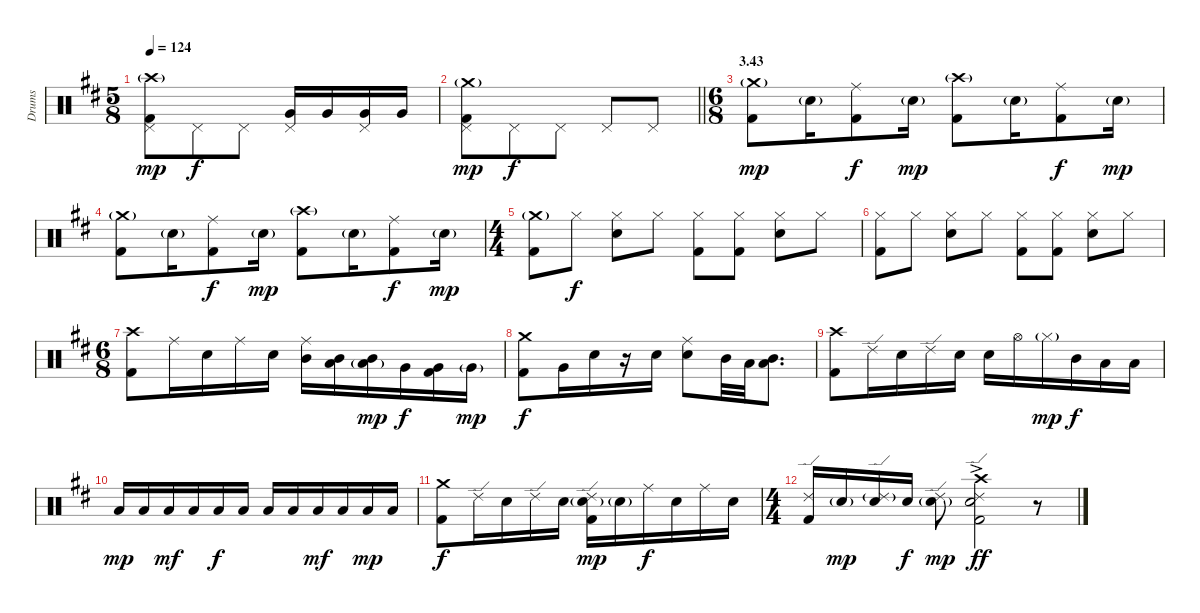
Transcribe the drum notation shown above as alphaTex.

\track ("Drums" "Drums") {instrument percussion}
\staff {score}
\articulation defaults
\ts (5 8)
\tempo 124
\clef neutral
\ks d
("Crash high (hit)"{g} "Pedal Hi-Hat (hit)" "Kick (hit) 2").8{dy mp} "Pedal Hi-Hat (hit)".8{dy f} "Pedal Hi-Hat (hit)".8 ("Pedal Hi-Hat (hit)" "Very Low Tom (hit)").16 "Very Low Tom (hit)".16 ("Pedal Hi-Hat (hit)" "Very Low Tom (hit)").16 "Very Low Tom (hit)".16 |
\barLineRight lightlight
("Crash medium (hit)"{g} "Pedal Hi-Hat (hit)" "Kick (hit) 2").8{dy mp} "Pedal Hi-Hat (hit)".8{dy f} "Pedal Hi-Hat (hit)".8 "Pedal Hi-Hat (hit)".8 "Pedal Hi-Hat (hit)".8 |
\ts (6 8)
\section ("" "3.43")
("Crash medium (hit)"{g} "Kick (hit) 2").8{dy mp} "Electric Snare (hit)"{g}.16 ("Ride (middle)" "Kick (hit) 2").8{dy f} "Electric Snare (hit)"{g}.16{dy mp} ("Crash high (hit)"{g} "Kick (hit) 2").8 "Electric Snare (hit)"{g}.16 ("Ride (middle)" "Kick (hit) 2").8{dy f} "Electric Snare (hit)"{g}.16{dy mp} |
("Crash medium (hit)"{g} "Kick (hit) 2").8 "Electric Snare (hit)"{g}.16 ("Ride (middle)" "Kick (hit) 2").8{dy f} "Electric Snare (hit)"{g}.16{dy mp} ("Crash high (hit)"{g} "Kick (hit) 2").8 "Electric Snare (hit)"{g}.16 ("Ride (middle)" "Kick (hit) 2").8{dy f} "Electric Snare (hit)"{g}.16{dy mp} |
\ts (4 4)
("Crash medium (hit)"{g} "Kick (hit) 2").8 "Hi-Hat (closed)".8{dy f} ("Hi-Hat (closed)" "Electric Snare (hit)").8 "Hi-Hat (closed)".8 ("Hi-Hat (closed)" "Kick (hit) 2").8 ("Hi-Hat (closed)" "Kick (hit) 2").8 ("Hi-Hat (closed)" "Electric Snare (hit)").8 "Hi-Hat (closed)".8 |
("Hi-Hat (closed)" "Kick (hit) 2").8 "Hi-Hat (closed)".8 ("Hi-Hat (closed)" "Electric Snare (hit)").8 "Hi-Hat (closed)".8 ("Hi-Hat (closed)" "Kick (hit) 2").8 ("Hi-Hat (closed)" "Kick (hit) 2").8 ("Hi-Hat (closed)" "Electric Snare (hit)").8 "Hi-Hat (closed)".8 |
\ts (6 8)
("Crash high (hit)" "Kick (hit) 2").8 "Ride (middle)".16 "Electric Snare (hit)".16 "Ride (middle)".16 "Electric Snare (hit)".16 ("Ride (middle)" "Mid Tom (hit)").16 ("Mid Tom (hit)" "Low Tom (hit)").16 ("Mid Tom (hit)" "Low Tom (hit)"{g}).16{dy mp} "Very Low Tom (hit)".16{dy f} ("Very Low Tom (hit)" "Kick (hit) 2").16 "Very Low Tom (hit)"{g}.16{dy mp} |
("Crash medium (hit)" "Kick (hit) 2").8{dy f} "Very Low Tom (hit)".16 "Electric Snare (hit)".16 r.16 "Electric Snare (hit)".16 ("Ride (middle)" "Electric Snare (hit)").8 "Mid Tom (hit)".32 "Low Tom (hit)".32 ("Mid Tom (hit)" "Low Tom (hit)").8{d} |
("Crash high (hit)" "Kick (hit) 2").8 "Ride (edge) 2".16 "Electric Snare (hit)".16 "Ride (edge) 2".16 "Electric Snare (hit)".16 "Electric Snare (hit)".16 "Hi-Hat (open)".16 "Hi-Hat (closed)"{g}.16{dy mp} "Mid Tom (hit)".16{dy f} "Low Tom (hit)".16 "Low Tom (hit)".16 |
"Low Tom (hit)".16{dy mp} "Low Tom (hit)".16 "Low Tom (hit)".16{dy mf} "Low Tom (hit)".16 "Low Tom (hit)".16{dy f} "Low Tom (hit)".16 "Low Tom (hit)".16 "Low Tom (hit)".16 "Low Tom (hit)".16{dy mf} "Low Tom (hit)".16 "Low Tom (hit)".16{dy mp} "Low Tom (hit)".16 |
("Crash medium (hit)" "Kick (hit) 2").8{dy f} "Ride (edge) 2".16 "Electric Snare (hit)".16 "Ride (edge) 2".16 "Electric Snare (hit)".16 ("Ride (edge) 2" "Electric Snare (hit)"{g} "Kick (hit) 2").16{dy mp} "Electric Snare (hit)"{g}.16 "Ride (middle)".16{dy f} "Electric Snare (hit)".16 "Ride (middle)".16 "Electric Snare (hit)".16 |
\ts (4 4)
("Ride (edge) 2" "Kick (hit) 2").16 "Electric Snare (hit)"{g}.16{dy mp} ("Ride (edge) 2"{g} "Electric Snare (hit)").16 "Electric Snare (hit)".16{dy f} ("Ride (edge) 2" "Electric Snare (hit)"{g}).8{dy mp} ("Crash high (hit)"{ac} "Ride (edge) 2"{ac} "Electric Snare (hit)"{ac} "Kick (hit) 2"{ac}).2{dy ff} r.8
